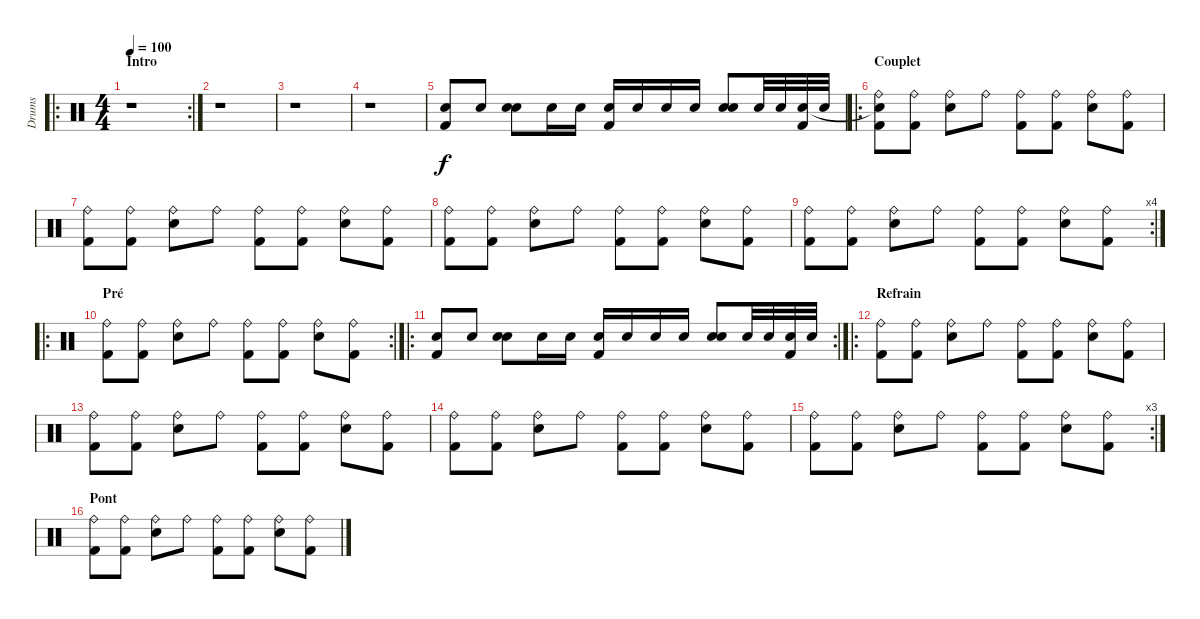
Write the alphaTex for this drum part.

\track ("Drums" "Drums") {instrument percussion}
\staff {score}
\articulation defaults
\ro
\rc 2
\ts (4 4)
\section ("" "Intro")
\tempo 100
\clef neutral
\ks c
r.1{dy f} |
r.1 |
r.1 |
r.1 |
("Kick (hit) 2" "Electric Snare (hit)").8 "Electric Snare (hit)".8 ("Hand Clap (hit)" "Electric Snare (hit)").8 "Electric Snare (hit)".16 "Electric Snare (hit)".16 ("Kick (hit) 2" "Electric Snare (hit)").16 "Electric Snare (hit)".16 "Electric Snare (hit)".16 "Electric Snare (hit)".16 ("Hand Clap (hit)" "Electric Snare (hit)").8 "Electric Snare (hit)".32 "Electric Snare (hit)".32 ("Kick (hit) 2" "Electric Snare (hit)").32 "Electric Snare (hit)".32 |
\ro
\section ("" "Couplet")
("Kick (hit) 2" "Snare (hit)"{t} "Ride (bell)").8 ("Kick (hit) 2" "Ride (bell)").8 ("Snare (hit) 2" "Ride (bell)").8 "Ride (bell)".8 ("Kick (hit) 2" "Ride (bell)").8 ("Kick (hit) 2" "Ride (bell)").8 ("Snare (hit) 2" "Ride (bell)").8 ("Kick (hit) 2" "Ride (bell)").8 |
("Kick (hit) 2" "Ride (bell)").8 ("Kick (hit) 2" "Ride (bell)").8 ("Snare (hit) 2" "Ride (bell)").8 "Ride (bell)".8 ("Kick (hit) 2" "Ride (bell)").8 ("Kick (hit) 2" "Ride (bell)").8 ("Snare (hit) 2" "Ride (bell)").8 ("Kick (hit) 2" "Ride (bell)").8 |
("Kick (hit) 2" "Ride (bell)").8 ("Kick (hit) 2" "Ride (bell)").8 ("Snare (hit) 2" "Ride (bell)").8 "Ride (bell)".8 ("Kick (hit) 2" "Ride (bell)").8 ("Kick (hit) 2" "Ride (bell)").8 ("Snare (hit) 2" "Ride (bell)").8 ("Kick (hit) 2" "Ride (bell)").8 |
\rc 4
("Kick (hit) 2" "Ride (bell)").8 ("Kick (hit) 2" "Ride (bell)").8 ("Snare (hit) 2" "Ride (bell)").8 "Ride (bell)".8 ("Kick (hit) 2" "Ride (bell)").8 ("Kick (hit) 2" "Ride (bell)").8 ("Snare (hit) 2" "Ride (bell)").8 ("Kick (hit) 2" "Ride (bell)").8 |
\ro
\rc 2
\section ("" "Pré")
("Kick (hit) 2" "Ride (bell)").8 ("Kick (hit) 2" "Ride (bell)").8 ("Snare (hit) 2" "Ride (bell)").8 "Ride (bell)".8 ("Kick (hit) 2" "Ride (bell)").8 ("Kick (hit) 2" "Ride (bell)").8 ("Snare (hit) 2" "Ride (bell)").8 ("Kick (hit) 2" "Ride (bell)").8 |
\ro
\rc 2
("Kick (hit) 2" "Electric Snare (hit)").8 "Electric Snare (hit)".8 ("Hand Clap (hit)" "Electric Snare (hit)").8 "Electric Snare (hit)".16 "Electric Snare (hit)".16 ("Kick (hit) 2" "Electric Snare (hit)").16 "Electric Snare (hit)".16 "Electric Snare (hit)".16 "Electric Snare (hit)".16 ("Hand Clap (hit)" "Electric Snare (hit)").8 "Electric Snare (hit)".32 "Electric Snare (hit)".32 ("Kick (hit) 2" "Electric Snare (hit)").32 "Electric Snare (hit)".32 |
\ro
\section ("" "Refrain")
("Kick (hit) 2" "Ride (bell)").8 ("Kick (hit) 2" "Ride (bell)").8 ("Snare (hit) 2" "Ride (bell)").8 "Ride (bell)".8 ("Kick (hit) 2" "Ride (bell)").8 ("Kick (hit) 2" "Ride (bell)").8 ("Snare (hit) 2" "Ride (bell)").8 ("Kick (hit) 2" "Ride (bell)").8 |
("Kick (hit) 2" "Ride (bell)").8 ("Kick (hit) 2" "Ride (bell)").8 ("Snare (hit) 2" "Ride (bell)").8 "Ride (bell)".8 ("Kick (hit) 2" "Ride (bell)").8 ("Kick (hit) 2" "Ride (bell)").8 ("Snare (hit) 2" "Ride (bell)").8 ("Kick (hit) 2" "Ride (bell)").8 |
("Kick (hit) 2" "Ride (bell)").8 ("Kick (hit) 2" "Ride (bell)").8 ("Snare (hit) 2" "Ride (bell)").8 "Ride (bell)".8 ("Kick (hit) 2" "Ride (bell)").8 ("Kick (hit) 2" "Ride (bell)").8 ("Snare (hit) 2" "Ride (bell)").8 ("Kick (hit) 2" "Ride (bell)").8 |
\rc 3
("Kick (hit) 2" "Ride (bell)").8 ("Kick (hit) 2" "Ride (bell)").8 ("Snare (hit) 2" "Ride (bell)").8 "Ride (bell)".8 ("Kick (hit) 2" "Ride (bell)").8 ("Kick (hit) 2" "Ride (bell)").8 ("Snare (hit) 2" "Ride (bell)").8 ("Kick (hit) 2" "Ride (bell)").8 |
\section ("" "Pont")
("Kick (hit) 2" "Ride (bell)").8 ("Kick (hit) 2" "Ride (bell)").8 ("Snare (hit) 2" "Ride (bell)").8 "Ride (bell)".8 ("Kick (hit) 2" "Ride (bell)").8 ("Kick (hit) 2" "Ride (bell)").8 ("Snare (hit) 2" "Ride (bell)").8 ("Kick (hit) 2" "Ride (bell)").8
